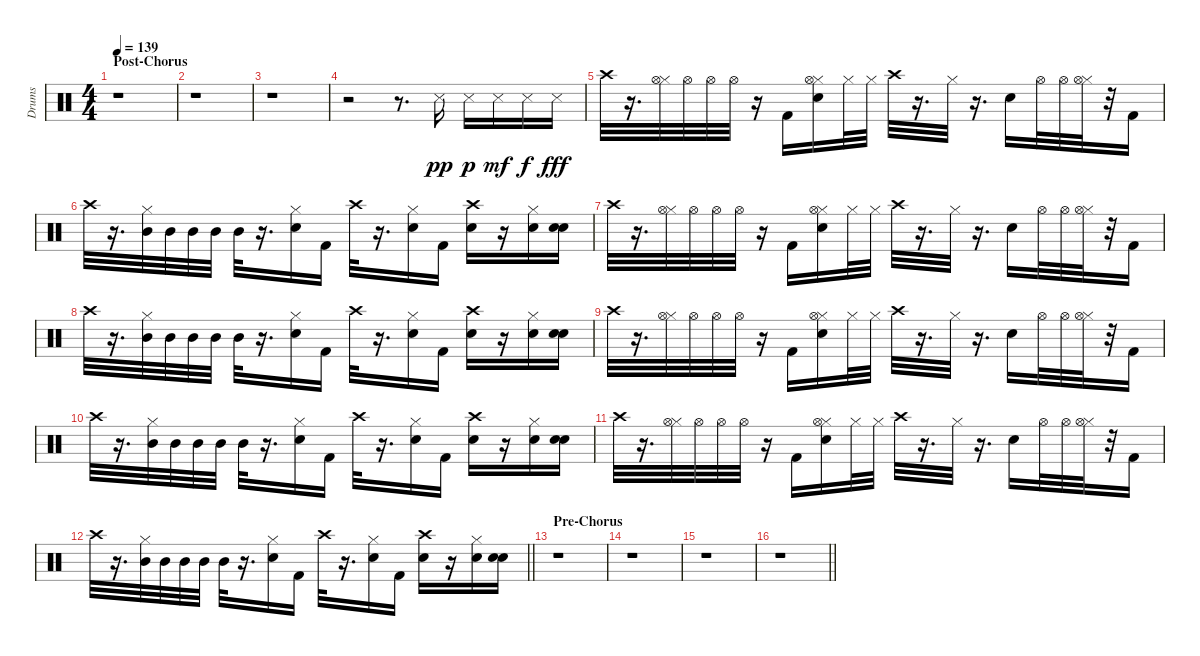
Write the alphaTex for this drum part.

\track ("Drums" "Drums") {instrument percussion}
\staff {score}
\articulation defaults
\ts (4 4)
\section ("" "Post-Chorus")
\tempo 139
\clef neutral
\ks c
r.1{dy fff} |
r.1 |
r.1 |
r.2 r.8{d} "Snare (side stick) 3".16{dy pp} "Snare (side stick) 3".16{dy p} "Snare (side stick) 3".16{dy mf} "Snare (side stick) 3".16{dy f} "Snare (side stick) 3".16{dy fff} |
"Crash high (hit)".32 r.16{d} ("Hi-Hat (closed)" "Hi-Hat (open)").32 "Hi-Hat (open)".32 "Hi-Hat (open)".32 "Hi-Hat (open)".32 r.16 "Kick (hit) 2".16 ("Snare (hit) 2" "Hi-Hat (closed)" "Hi-Hat (open)").16 "Hi-Hat (closed)".32 "Hi-Hat (closed)".32 "Crash high (hit)".32 r.16{d} "Hi-Hat (closed)".32 r.16{d} "Snare (hit) 2".16 "Hi-Hat (open)".32 "Hi-Hat (open)".32 ("Hi-Hat (closed)" "Hi-Hat (open)").32 r.32 "Kick (hit) 2".16 |
"Crash high (hit)".32 r.16{d} ("Hi-Hat (closed)" "Mid Tom (hit)").32 "Mid Tom (hit)".32 "Mid Tom (hit)".32 "Mid Tom (hit)".32 "Mid Tom (hit)".32 r.16{d} ("Snare (hit) 2" "Hi-Hat (closed)").16 "Kick (hit) 2".16 "Crash high (hit)".32 r.16{d} ("Snare (hit) 2" "Hi-Hat (closed)").16 "Kick (hit) 2".16 ("Snare (hit) 2" "Crash high (hit)").16 r.16 ("Snare (hit) 2" "Hi-Hat (closed)").16 ("Snare (hit) 2" "Snare (hit) 2").16 |
"Crash high (hit)".32 r.16{d} ("Hi-Hat (closed)" "Hi-Hat (open)").32 "Hi-Hat (open)".32 "Hi-Hat (open)".32 "Hi-Hat (open)".32 r.16 "Kick (hit) 2".16 ("Snare (hit) 2" "Hi-Hat (closed)" "Hi-Hat (open)").16 "Hi-Hat (closed)".32 "Hi-Hat (closed)".32 "Crash high (hit)".32 r.16{d} "Hi-Hat (closed)".32 r.16{d} "Snare (hit) 2".16 "Hi-Hat (open)".32 "Hi-Hat (open)".32 ("Hi-Hat (closed)" "Hi-Hat (open)").32 r.32 "Kick (hit) 2".16 |
"Crash high (hit)".32 r.16{d} ("Hi-Hat (closed)" "Mid Tom (hit)").32 "Mid Tom (hit)".32 "Mid Tom (hit)".32 "Mid Tom (hit)".32 "Mid Tom (hit)".32 r.16{d} ("Snare (hit) 2" "Hi-Hat (closed)").16 "Kick (hit) 2".16 "Crash high (hit)".32 r.16{d} ("Snare (hit) 2" "Hi-Hat (closed)").16 "Kick (hit) 2".16 ("Snare (hit) 2" "Crash high (hit)").16 r.16 ("Snare (hit) 2" "Hi-Hat (closed)").16 ("Snare (hit) 2" "Snare (hit) 2").16 |
"Crash high (hit)".32 r.16{d} ("Hi-Hat (closed)" "Hi-Hat (open)").32 "Hi-Hat (open)".32 "Hi-Hat (open)".32 "Hi-Hat (open)".32 r.16 "Kick (hit) 2".16 ("Snare (hit) 2" "Hi-Hat (closed)" "Hi-Hat (open)").16 "Hi-Hat (closed)".32 "Hi-Hat (closed)".32 "Crash high (hit)".32 r.16{d} "Hi-Hat (closed)".32 r.16{d} "Snare (hit) 2".16 "Hi-Hat (open)".32 "Hi-Hat (open)".32 ("Hi-Hat (closed)" "Hi-Hat (open)").32 r.32 "Kick (hit) 2".16 |
"Crash high (hit)".32 r.16{d} ("Hi-Hat (closed)" "Mid Tom (hit)").32 "Mid Tom (hit)".32 "Mid Tom (hit)".32 "Mid Tom (hit)".32 "Mid Tom (hit)".32 r.16{d} ("Snare (hit) 2" "Hi-Hat (closed)").16 "Kick (hit) 2".16 "Crash high (hit)".32 r.16{d} ("Snare (hit) 2" "Hi-Hat (closed)").16 "Kick (hit) 2".16 ("Snare (hit) 2" "Crash high (hit)").16 r.16 ("Snare (hit) 2" "Hi-Hat (closed)").16 ("Snare (hit) 2" "Snare (hit) 2").16 |
"Crash high (hit)".32 r.16{d} ("Hi-Hat (closed)" "Hi-Hat (open)").32 "Hi-Hat (open)".32 "Hi-Hat (open)".32 "Hi-Hat (open)".32 r.16 "Kick (hit) 2".16 ("Snare (hit) 2" "Hi-Hat (closed)" "Hi-Hat (open)").16 "Hi-Hat (closed)".32 "Hi-Hat (closed)".32 "Crash high (hit)".32 r.16{d} "Hi-Hat (closed)".32 r.16{d} "Snare (hit) 2".16 "Hi-Hat (open)".32 "Hi-Hat (open)".32 ("Hi-Hat (closed)" "Hi-Hat (open)").32 r.32 "Kick (hit) 2".16 |
\barLineRight lightlight "Crash high (hit)".32
r.16{d} ("Hi-Hat (closed)" "Mid Tom (hit)").32 "Mid Tom (hit)".32 "Mid Tom (hit)".32 "Mid Tom (hit)".32 "Mid Tom (hit)".32 r.16{d} ("Snare (hit) 2" "Hi-Hat (closed)").16 "Kick (hit) 2".16 "Crash high (hit)".32 r.16{d} ("Snare (hit) 2" "Hi-Hat (closed)").16 "Kick (hit) 2".16 ("Snare (hit) 2" "Crash high (hit)").16 r.16 ("Snare (hit) 2" "Hi-Hat (closed)").16 ("Snare (hit) 2" "Snare (hit) 2").16 |
\section ("" "Pre-Chorus")
r.1 |
r.1 |
r.1 |
\barLineRight lightlight
r.1
